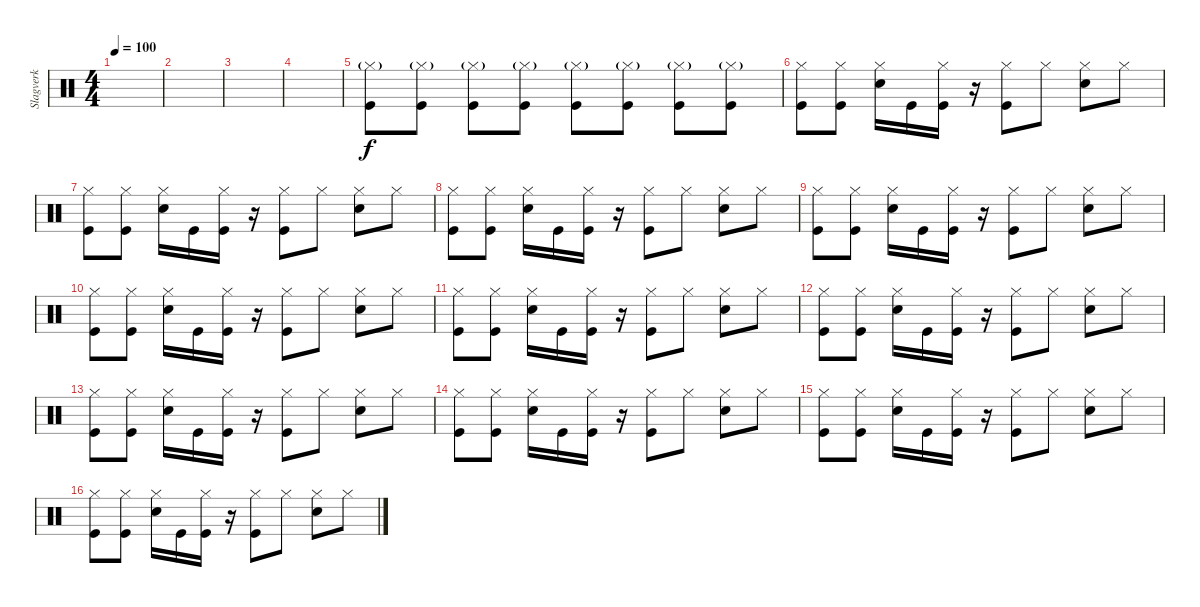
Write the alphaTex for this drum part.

\track ("Slagverk" "Slagverk") {instrument percussion}
\staff {score}
\articulation defaults
\ts (4 4)
\tempo 100
\clef neutral
\ks c
|
|
|
|
("Hi-Hat (closed)"{g} "Kick (hit)").8 ("Hi-Hat (closed)"{g} "Kick (hit)").8 ("Hi-Hat (closed)"{g} "Kick (hit)").8 ("Hi-Hat (closed)"{g} "Kick (hit)").8 ("Hi-Hat (closed)"{g} "Kick (hit)").8 ("Hi-Hat (closed)"{g} "Kick (hit)").8 ("Hi-Hat (closed)"{g} "Kick (hit)").8 ("Hi-Hat (closed)"{g} "Kick (hit)").8 |
("Hi-Hat (closed)" "Kick (hit)").8{dy f} ("Hi-Hat (closed)" "Kick (hit)").8 ("Hi-Hat (closed)" "Snare (hit) 2").16 "Kick (hit)".16 ("Hi-Hat (closed)" "Kick (hit)").16 r.16 ("Hi-Hat (closed)" "Kick (hit)").8 "Hi-Hat (closed)".8 ("Hi-Hat (closed)" "Snare (hit) 2").8 "Hi-Hat (closed)".8 |
("Hi-Hat (closed)" "Kick (hit)").8 ("Hi-Hat (closed)" "Kick (hit)").8 ("Hi-Hat (closed)" "Snare (hit) 2").16 "Kick (hit)".16 ("Hi-Hat (closed)" "Kick (hit)").16 r.16 ("Hi-Hat (closed)" "Kick (hit)").8 "Hi-Hat (closed)".8 ("Hi-Hat (closed)" "Snare (hit) 2").8 "Hi-Hat (closed)".8 |
("Hi-Hat (closed)" "Kick (hit)").8 ("Hi-Hat (closed)" "Kick (hit)").8 ("Hi-Hat (closed)" "Snare (hit) 2").16 "Kick (hit)".16 ("Hi-Hat (closed)" "Kick (hit)").16 r.16 ("Hi-Hat (closed)" "Kick (hit)").8 "Hi-Hat (closed)".8 ("Hi-Hat (closed)" "Snare (hit) 2").8 "Hi-Hat (closed)".8 |
("Hi-Hat (closed)" "Kick (hit)").8 ("Hi-Hat (closed)" "Kick (hit)").8 ("Hi-Hat (closed)" "Snare (hit) 2").16 "Kick (hit)".16 ("Hi-Hat (closed)" "Kick (hit)").16 r.16 ("Hi-Hat (closed)" "Kick (hit)").8 "Hi-Hat (closed)".8 ("Hi-Hat (closed)" "Snare (hit) 2").8 "Hi-Hat (closed)".8 |
("Hi-Hat (closed)" "Kick (hit)").8 ("Hi-Hat (closed)" "Kick (hit)").8 ("Hi-Hat (closed)" "Snare (hit) 2").16 "Kick (hit)".16 ("Hi-Hat (closed)" "Kick (hit)").16 r.16 ("Hi-Hat (closed)" "Kick (hit)").8 "Hi-Hat (closed)".8 ("Hi-Hat (closed)" "Snare (hit) 2").8 "Hi-Hat (closed)".8 |
("Hi-Hat (closed)" "Kick (hit)").8 ("Hi-Hat (closed)" "Kick (hit)").8 ("Hi-Hat (closed)" "Snare (hit) 2").16 "Kick (hit)".16 ("Hi-Hat (closed)" "Kick (hit)").16 r.16 ("Hi-Hat (closed)" "Kick (hit)").8 "Hi-Hat (closed)".8 ("Hi-Hat (closed)" "Snare (hit) 2").8 "Hi-Hat (closed)".8 |
("Hi-Hat (closed)" "Kick (hit)").8 ("Hi-Hat (closed)" "Kick (hit)").8 ("Hi-Hat (closed)" "Snare (hit) 2").16 "Kick (hit)".16 ("Hi-Hat (closed)" "Kick (hit)").16 r.16 ("Hi-Hat (closed)" "Kick (hit)").8 "Hi-Hat (closed)".8 ("Hi-Hat (closed)" "Snare (hit) 2").8 "Hi-Hat (closed)".8 |
("Hi-Hat (closed)" "Kick (hit)").8 ("Hi-Hat (closed)" "Kick (hit)").8 ("Hi-Hat (closed)" "Snare (hit) 2").16 "Kick (hit)".16 ("Hi-Hat (closed)" "Kick (hit)").16 r.16 ("Hi-Hat (closed)" "Kick (hit)").8 "Hi-Hat (closed)".8 ("Hi-Hat (closed)" "Snare (hit) 2").8 "Hi-Hat (closed)".8 |
("Hi-Hat (closed)" "Kick (hit)").8 ("Hi-Hat (closed)" "Kick (hit)").8 ("Hi-Hat (closed)" "Snare (hit) 2").16 "Kick (hit)".16 ("Hi-Hat (closed)" "Kick (hit)").16 r.16 ("Hi-Hat (closed)" "Kick (hit)").8 "Hi-Hat (closed)".8 ("Hi-Hat (closed)" "Snare (hit) 2").8 "Hi-Hat (closed)".8 |
("Hi-Hat (closed)" "Kick (hit)").8 ("Hi-Hat (closed)" "Kick (hit)").8 ("Hi-Hat (closed)" "Snare (hit) 2").16 "Kick (hit)".16 ("Hi-Hat (closed)" "Kick (hit)").16 r.16 ("Hi-Hat (closed)" "Kick (hit)").8 "Hi-Hat (closed)".8 ("Hi-Hat (closed)" "Snare (hit) 2").8 "Hi-Hat (closed)".8 |
("Hi-Hat (closed)" "Kick (hit)").8 ("Hi-Hat (closed)" "Kick (hit)").8 ("Hi-Hat (closed)" "Snare (hit) 2").16 "Kick (hit)".16 ("Hi-Hat (closed)" "Kick (hit)").16 r.16 ("Hi-Hat (closed)" "Kick (hit)").8 "Hi-Hat (closed)".8 ("Hi-Hat (closed)" "Snare (hit) 2").8 "Hi-Hat (closed)".8
